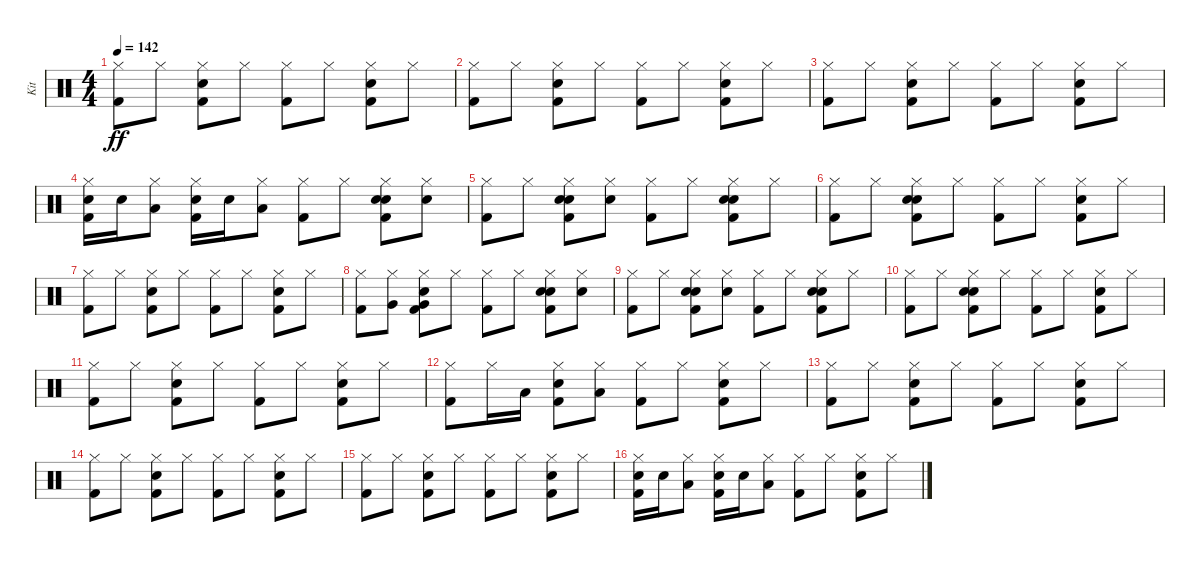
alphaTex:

\track ("Kit" "Kit") {instrument percussion}
\staff {score}
\articulation defaults
\ts (4 4)
\tempo 142
\clef neutral
\ks c
("Kick (hit) 2" "Hi-Hat (closed)").8{dy ff} "Hi-Hat (closed)".8 ("Kick (hit) 2" "Electric Snare (hit)" "Hi-Hat (closed)").8 "Hi-Hat (closed)".8 ("Kick (hit) 2" "Hi-Hat (closed)").8 "Hi-Hat (closed)".8 ("Kick (hit) 2" "Electric Snare (hit)" "Hi-Hat (closed)").8 "Hi-Hat (closed)".8 |
("Kick (hit) 2" "Hi-Hat (closed)").8 "Hi-Hat (closed)".8 ("Kick (hit) 2" "Electric Snare (hit)" "Hi-Hat (closed)").8 "Hi-Hat (closed)".8 ("Kick (hit) 2" "Hi-Hat (closed)").8 "Hi-Hat (closed)".8 ("Kick (hit) 2" "Electric Snare (hit)" "Hi-Hat (closed)").8 "Hi-Hat (closed)".8 |
("Kick (hit) 2" "Hi-Hat (closed)").8 "Hi-Hat (closed)".8 ("Kick (hit) 2" "Electric Snare (hit)" "Hi-Hat (closed)").8 "Hi-Hat (closed)".8 ("Kick (hit) 2" "Hi-Hat (closed)").8 "Hi-Hat (closed)".8 ("Kick (hit) 2" "Electric Snare (hit)" "Hi-Hat (closed)").8 "Hi-Hat (closed)".8 |
("Kick (hit) 2" "Electric Snare (hit)" "Hi-Hat (closed)").16 "Electric Snare (hit)".16 ("Hi-Hat (closed)" "Low Tom (hit)").8 ("Kick (hit) 2" "Electric Snare (hit)" "Hi-Hat (closed)").16 "Electric Snare (hit)".16 ("Hi-Hat (closed)" "Low Tom (hit)").8 ("Kick (hit) 2" "Hi-Hat (closed)").8 "Hi-Hat (closed)".8 ("Kick (hit) 2" "Hand Clap (hit)" "Electric Snare (hit)" "Hi-Hat (closed)").8 ("Hand Clap (hit)" "Hi-Hat (closed)").8 |
("Kick (hit) 2" "Hi-Hat (closed)").8 "Hi-Hat (closed)".8 ("Kick (hit) 2" "Hand Clap (hit)" "Electric Snare (hit)" "Hi-Hat (closed)").8 ("Hand Clap (hit)" "Hi-Hat (closed)").8 ("Kick (hit) 2" "Hi-Hat (closed)").8 "Hi-Hat (closed)".8 ("Kick (hit) 2" "Hand Clap (hit)" "Electric Snare (hit)" "Hi-Hat (closed)").8 "Hi-Hat (closed)".8 |
("Kick (hit) 2" "Hi-Hat (closed)").8 "Hi-Hat (closed)".8 ("Kick (hit) 2" "Hand Clap (hit)" "Electric Snare (hit)" "Hi-Hat (closed)").8 "Hi-Hat (closed)".8 ("Kick (hit) 2" "Hi-Hat (closed)").8 "Hi-Hat (closed)".8 ("Kick (hit) 2" "Electric Snare (hit)" "Hi-Hat (closed)").8 "Hi-Hat (closed)".8 |
("Kick (hit) 2" "Hi-Hat (closed)").8 "Hi-Hat (closed)".8 ("Kick (hit) 2" "Electric Snare (hit)" "Hi-Hat (closed)").8 "Hi-Hat (closed)".8 ("Kick (hit) 2" "Hi-Hat (closed)").8 "Hi-Hat (closed)".8 ("Kick (hit) 2" "Electric Snare (hit)" "Hi-Hat (closed)").8 "Hi-Hat (closed)".8 |
("Kick (hit) 2" "Hi-Hat (closed)").8 ("Hi-Hat (closed)" "Very Low Tom (hit)").8 ("Kick (hit) 2" "Electric Snare (hit)" "Hi-Hat (closed)" "Very Low Tom (hit)").8 "Hi-Hat (closed)".8 ("Kick (hit) 2" "Hi-Hat (closed)").8 "Hi-Hat (closed)".8 ("Kick (hit) 2" "Hand Clap (hit)" "Electric Snare (hit)" "Hi-Hat (closed)").8 ("Hand Clap (hit)" "Hi-Hat (closed)").8 |
("Kick (hit) 2" "Hi-Hat (closed)").8 "Hi-Hat (closed)".8 ("Kick (hit) 2" "Hand Clap (hit)" "Electric Snare (hit)" "Hi-Hat (closed)").8 ("Hand Clap (hit)" "Hi-Hat (closed)").8 ("Kick (hit) 2" "Hi-Hat (closed)").8 "Hi-Hat (closed)".8 ("Kick (hit) 2" "Hand Clap (hit)" "Electric Snare (hit)" "Hi-Hat (closed)").8 "Hi-Hat (closed)".8 |
("Kick (hit) 2" "Hi-Hat (closed)").8 "Hi-Hat (closed)".8 ("Kick (hit) 2" "Hand Clap (hit)" "Electric Snare (hit)" "Hi-Hat (closed)").8 "Hi-Hat (closed)".8 ("Kick (hit) 2" "Hi-Hat (closed)").8 "Hi-Hat (closed)".8 ("Kick (hit) 2" "Electric Snare (hit)" "Hi-Hat (closed)").8 "Hi-Hat (closed)".8 |
("Kick (hit) 2" "Hi-Hat (closed)").8 "Hi-Hat (closed)".8 ("Kick (hit) 2" "Electric Snare (hit)" "Hi-Hat (closed)").8 "Hi-Hat (closed)".8 ("Kick (hit) 2" "Hi-Hat (closed)").8 "Hi-Hat (closed)".8 ("Kick (hit) 2" "Electric Snare (hit)" "Hi-Hat (closed)").8 "Hi-Hat (closed)".8 |
("Kick (hit) 2" "Hi-Hat (closed)").8 "Hi-Hat (closed)".16 "Low Floor Tom (hit)".16 ("Kick (hit) 2" "Electric Snare (hit)" "Hi-Hat (closed)").8 ("Low Floor Tom (hit)" "Hi-Hat (closed)").8 ("Kick (hit) 2" "Hi-Hat (closed)").8 "Hi-Hat (closed)".8 ("Kick (hit) 2" "Electric Snare (hit)" "Hi-Hat (closed)").8 "Hi-Hat (closed)".8 |
("Kick (hit) 2" "Hi-Hat (closed)").8 "Hi-Hat (closed)".8 ("Kick (hit) 2" "Electric Snare (hit)" "Hi-Hat (closed)").8 "Hi-Hat (closed)".8 ("Kick (hit) 2" "Hi-Hat (closed)").8 "Hi-Hat (closed)".8 ("Kick (hit) 2" "Electric Snare (hit)" "Hi-Hat (closed)").8 "Hi-Hat (closed)".8 |
("Kick (hit) 2" "Hi-Hat (closed)").8 "Hi-Hat (closed)".8 ("Kick (hit) 2" "Electric Snare (hit)" "Hi-Hat (closed)").8 "Hi-Hat (closed)".8 ("Kick (hit) 2" "Hi-Hat (closed)").8 "Hi-Hat (closed)".8 ("Kick (hit) 2" "Electric Snare (hit)" "Hi-Hat (closed)").8 "Hi-Hat (closed)".8 |
("Kick (hit) 2" "Hi-Hat (closed)").8 "Hi-Hat (closed)".8 ("Kick (hit) 2" "Electric Snare (hit)" "Hi-Hat (closed)").8 "Hi-Hat (closed)".8 ("Kick (hit) 2" "Hi-Hat (closed)").8 "Hi-Hat (closed)".8 ("Kick (hit) 2" "Electric Snare (hit)" "Hi-Hat (closed)").8 "Hi-Hat (closed)".8 |
("Kick (hit) 2" "Electric Snare (hit)" "Hi-Hat (closed)").16 "Electric Snare (hit)".16 ("Hi-Hat (closed)" "Low Tom (hit)").8 ("Kick (hit) 2" "Electric Snare (hit)" "Hi-Hat (closed)").16 "Electric Snare (hit)".16 ("Hi-Hat (closed)" "Low Tom (hit)").8 ("Kick (hit) 2" "Hi-Hat (closed)").8 "Hi-Hat (closed)".8 ("Kick (hit) 2" "Electric Snare (hit)" "Hi-Hat (closed)").8 "Hi-Hat (closed)".8
